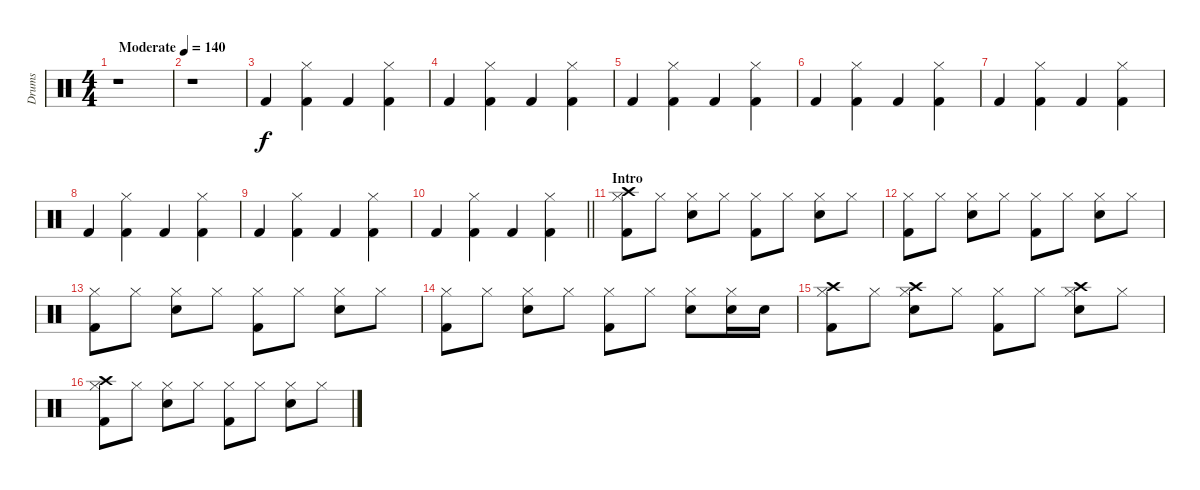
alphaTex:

\track ("Drums" "Drums") {instrument percussion}
\staff {score}
\articulation defaults
\ts (4 4)
\tempo (140 "Moderate")
\clef neutral
\ks c
r.1{dy f} |
r.1 |
"Kick (hit) 2".4 ("Hi-Hat (closed)" "Kick (hit) 2").4 "Kick (hit) 2".4 ("Hi-Hat (closed)" "Kick (hit) 2").4 |
"Kick (hit) 2".4 ("Hi-Hat (closed)" "Kick (hit) 2").4 "Kick (hit) 2".4 ("Hi-Hat (closed)" "Kick (hit) 2").4 |
"Kick (hit) 2".4 ("Hi-Hat (closed)" "Kick (hit) 2").4 "Kick (hit) 2".4 ("Hi-Hat (closed)" "Kick (hit) 2").4 |
"Kick (hit) 2".4 ("Hi-Hat (closed)" "Kick (hit) 2").4 "Kick (hit) 2".4 ("Hi-Hat (closed)" "Kick (hit) 2").4 |
"Kick (hit) 2".4 ("Hi-Hat (closed)" "Kick (hit) 2").4 "Kick (hit) 2".4 ("Hi-Hat (closed)" "Kick (hit) 2").4 |
"Kick (hit) 2".4 ("Hi-Hat (closed)" "Kick (hit) 2").4 "Kick (hit) 2".4 ("Hi-Hat (closed)" "Kick (hit) 2").4 |
"Kick (hit) 2".4 ("Hi-Hat (closed)" "Kick (hit) 2").4 "Kick (hit) 2".4 ("Hi-Hat (closed)" "Kick (hit) 2").4 |
\barLineRight lightlight "Kick (hit) 2".4
("Hi-Hat (closed)" "Kick (hit) 2").4 "Kick (hit) 2".4 ("Hi-Hat (closed)" "Kick (hit) 2").4 |
\section ("" "Intro")
("Hi-Hat (closed)" "Crash high (hit)" "Kick (hit) 2").8 "Hi-Hat (closed)".8 ("Hi-Hat (closed)" "Snare (hit) 2").8 "Hi-Hat (closed)".8 ("Hi-Hat (closed)" "Kick (hit) 2").8 "Hi-Hat (closed)".8 ("Hi-Hat (closed)" "Snare (hit) 2").8 "Hi-Hat (closed)".8 |
("Hi-Hat (closed)" "Kick (hit) 2").8 "Hi-Hat (closed)".8 ("Hi-Hat (closed)" "Snare (hit) 2").8 "Hi-Hat (closed)".8 ("Hi-Hat (closed)" "Kick (hit) 2").8 "Hi-Hat (closed)".8 ("Hi-Hat (closed)" "Snare (hit) 2").8 "Hi-Hat (closed)".8 |
("Hi-Hat (closed)" "Kick (hit) 2").8 "Hi-Hat (closed)".8 ("Hi-Hat (closed)" "Snare (hit) 2").8 "Hi-Hat (closed)".8 ("Hi-Hat (closed)" "Kick (hit) 2").8 "Hi-Hat (closed)".8 ("Hi-Hat (closed)" "Snare (hit) 2").8 "Hi-Hat (closed)".8 |
("Hi-Hat (closed)" "Kick (hit) 2").8 "Hi-Hat (closed)".8 ("Hi-Hat (closed)" "Snare (hit) 2").8 "Hi-Hat (closed)".8 ("Hi-Hat (closed)" "Kick (hit) 2").8 "Hi-Hat (closed)".8 ("Hi-Hat (closed)" "Snare (hit) 2").8 ("Hi-Hat (closed)" "Snare (hit) 2").16 "Snare (hit) 2".16 |
("Hi-Hat (closed)" "Crash high (hit)" "Kick (hit) 2").8 "Hi-Hat (closed)".8 ("Hi-Hat (closed)" "Crash high (hit)" "Snare (hit) 2").8 "Hi-Hat (closed)".8 ("Hi-Hat (closed)" "Kick (hit) 2").8 "Hi-Hat (closed)".8 ("Hi-Hat (closed)" "Crash high (hit)" "Snare (hit) 2").8 "Hi-Hat (closed)".8 |
("Hi-Hat (closed)" "Crash high (hit)" "Kick (hit) 2").8 "Hi-Hat (closed)".8 ("Hi-Hat (closed)" "Snare (hit) 2").8 "Hi-Hat (closed)".8 ("Hi-Hat (closed)" "Kick (hit) 2").8 "Hi-Hat (closed)".8 ("Hi-Hat (closed)" "Snare (hit) 2").8 "Hi-Hat (closed)".8
